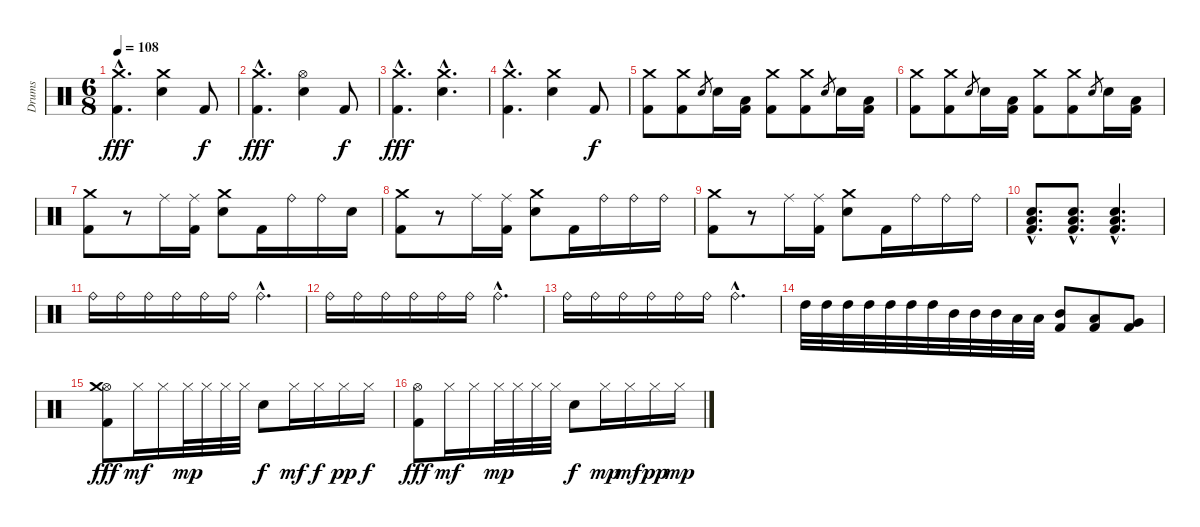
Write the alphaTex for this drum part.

\track ("Drums" "Drums") {instrument percussion}
\staff {score}
\articulation defaults
\ts (6 8)
\tempo 108
\clef neutral
\ks c
("Crash medium (hit)"{hac} "Kick (hit) 2"{hac}).4{d dy fff} ("Crash medium (hit)" "Snare (hit) 2").4 "Kick (hit) 2".8{dy f} |
("Crash medium (hit)"{hac} "Kick (hit) 2"{hac}).4{d dy fff} ("Hi-Hat (open)" "Snare (hit) 2").4 "Kick (hit) 2".8{dy f} |
("Crash medium (hit)"{hac} "Kick (hit) 2"{hac}).4{d dy fff} ("Crash medium (hit)"{hac} "Snare (hit) 2"{hac}).4{d} |
("Crash medium (hit)"{hac} "Kick (hit) 2"{hac}).4{d} ("Crash medium (hit)" "Snare (hit) 2").4 "Kick (hit) 2".8{dy f} |
("Crash medium (hit)" "Kick (hit) 2").8 ("Crash medium (hit)" "Kick (hit) 2").8 "Snare (hit) 2".8{gr} "Snare (hit) 2".16 ("Low Tom (hit)" "Kick (hit) 2").16 ("Crash medium (hit)" "Kick (hit) 2").8 ("Crash medium (hit)" "Kick (hit) 2").8 "Snare (hit) 2".8{gr} "Snare (hit) 2".16 ("Low Tom (hit)" "Kick (hit) 2").16 |
("Crash medium (hit)" "Kick (hit) 2").8 ("Crash medium (hit)" "Kick (hit) 2").8 "Snare (hit) 2".8{gr} "Snare (hit) 2".16 ("Low Tom (hit)" "Kick (hit) 2").16 ("Crash medium (hit)" "Kick (hit) 2").8 ("Crash medium (hit)" "Kick (hit) 2").8 "Snare (hit) 2".8{gr} "Snare (hit) 2".16 ("Low Tom (hit)" "Kick (hit) 2").16 |
("Crash medium (hit)" "Kick (hit) 2").8 r.8 "Ride (middle)".16 ("Ride (middle)" "Kick (hit) 2").16 ("Crash medium (hit)" "Snare (hit) 2").8 "Kick (hit) 2".16 "Ride (bell)".16 "Ride (bell)".16 "Snare (hit) 2".16 |
("Crash medium (hit)" "Kick (hit) 2").8 r.8 "Ride (middle)".16 ("Ride (middle)" "Kick (hit) 2").16 ("Crash medium (hit)" "Snare (hit) 2").8 "Kick (hit) 2".16 "Ride (bell)".16 "Ride (bell)".16 "Ride (bell)".16 |
("Crash medium (hit)" "Kick (hit) 2").8 r.8 "Ride (middle)".16 ("Ride (middle)" "Kick (hit) 2").16 ("Crash medium (hit)" "Snare (hit) 2").8 "Kick (hit) 2".16 "Ride (bell)".16 "Ride (bell)".16 "Ride (bell)".16 |
("Low Tom (hit)"{hac} "Snare (hit) 2"{hac} "Kick (hit) 2"{hac}).8{d} ("Low Tom (hit)"{hac} "Snare (hit) 2"{hac} "Kick (hit) 2"{hac}).8{d} ("Low Tom (hit)"{hac} "Snare (hit) 2"{hac} "Kick (hit) 2"{hac}).4{d} |
"Ride (bell)".16 "Ride (bell)".16 "Ride (bell)".16 "Ride (bell)".16 "Ride (bell)".16 "Ride (bell)".16 "Ride (bell)"{hac}.4{d} |
"Ride (bell)".16 "Ride (bell)".16 "Ride (bell)".16 "Ride (bell)".16 "Ride (bell)".16 "Ride (bell)".16 "Ride (bell)"{hac}.4{d} |
"Ride (bell)".16 "Ride (bell)".16 "Ride (bell)".16 "Ride (bell)".16 "Ride (bell)".16 "Ride (bell)".16 "Ride (bell)"{hac}.4{d} |
"High Tom (hit)".32 "High Tom (hit)".32 "High Tom (hit)".32 "High Tom (hit)".32 "High Tom (hit)".32 "High Tom (hit)".32 "High Tom (hit)".32 "Mid Tom (hit)".32 "Mid Tom (hit)".32 "Mid Tom (hit)".32 "Low Tom (hit)".32 "Low Tom (hit)".32 ("Mid Tom (hit)" "Kick (hit) 2").8 ("Low Tom (hit)" "Kick (hit) 2").8 ("Very Low Tom (hit)" "Kick (hit) 2").8 |
("Hi-Hat (open)" "Crash medium (hit)" "Kick (hit) 2").8{dy fff} "Hi-Hat (closed)".16{dy mf} "Hi-Hat (closed)".16 "Hi-Hat (closed)".32{dy mp} "Hi-Hat (closed)".32 "Hi-Hat (closed)".32 "Hi-Hat (closed)".32 "Snare (hit) 2".8{dy f} "Hi-Hat (closed)".16{dy mf} "Hi-Hat (closed)".16{dy f} "Hi-Hat (closed)".16{dy pp} "Hi-Hat (closed)".16{dy f} |
("Hi-Hat (open)" "Kick (hit) 2").8{dy fff} "Hi-Hat (closed)".16{dy mf} "Hi-Hat (closed)".16 "Hi-Hat (closed)".32{dy mp} "Hi-Hat (closed)".32 "Hi-Hat (closed)".32 "Hi-Hat (closed)".32 "Snare (hit) 2".8{dy f} "Hi-Hat (closed)".16{dy mp} "Hi-Hat (closed)".16{dy mf} "Hi-Hat (closed)".16{dy pp} "Hi-Hat (closed)".16{dy mp}
